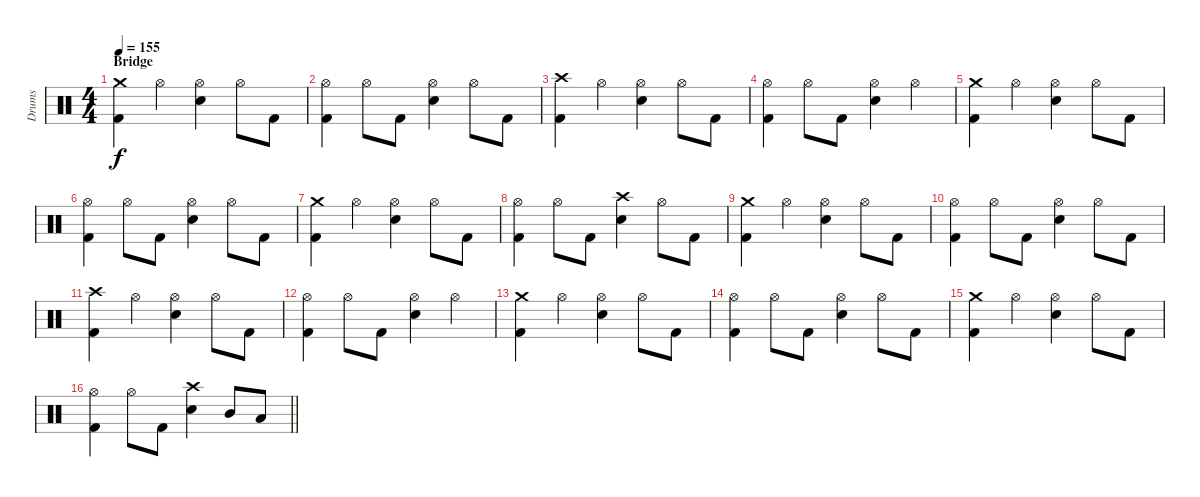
\track ("Drums" "Drums") {instrument percussion}
\staff {score}
\articulation defaults
\ts (4 4)
\section ("" "Bridge")
\tempo 155
\clef neutral
\ks c
("Crash medium (hit)" "Kick (hit) 2").4{dy f} "Hi-Hat (open)".4 ("Hi-Hat (open)" "Electric Snare (hit)").4 "Hi-Hat (open)".8 "Kick (hit) 2".8 |
("Hi-Hat (open)" "Kick (hit) 2").4 "Hi-Hat (open)".8 "Kick (hit) 2".8 ("Hi-Hat (open)" "Electric Snare (hit)").4 "Hi-Hat (open)".8 "Kick (hit) 2".8 |
("Crash high (hit)" "Kick (hit) 2").4 "Hi-Hat (open)".4 ("Hi-Hat (open)" "Electric Snare (hit)").4 "Hi-Hat (open)".8 "Kick (hit) 2".8 |
("Hi-Hat (open)" "Kick (hit) 2").4 "Hi-Hat (open)".8 "Kick (hit) 2".8 ("Hi-Hat (open)" "Electric Snare (hit)").4 "Hi-Hat (open)".4 |
("Crash medium (hit)" "Kick (hit) 2").4 "Hi-Hat (open)".4 ("Hi-Hat (open)" "Electric Snare (hit)").4 "Hi-Hat (open)".8 "Kick (hit) 2".8 |
("Hi-Hat (open)" "Kick (hit) 2").4 "Hi-Hat (open)".8 "Kick (hit) 2".8 ("Hi-Hat (open)" "Electric Snare (hit)").4 "Hi-Hat (open)".8 "Kick (hit) 2".8 |
("Crash medium (hit)" "Kick (hit) 2").4 "Hi-Hat (open)".4 ("Hi-Hat (open)" "Electric Snare (hit)").4 "Hi-Hat (open)".8 "Kick (hit) 2".8 |
("Hi-Hat (open)" "Kick (hit) 2").4 "Hi-Hat (open)".8 "Kick (hit) 2".8 ("Crash high (hit)" "Electric Snare (hit)").4 "Hi-Hat (open)".8 "Kick (hit) 2".8 |
("Crash medium (hit)" "Kick (hit) 2").4 "Hi-Hat (open)".4 ("Hi-Hat (open)" "Electric Snare (hit)").4 "Hi-Hat (open)".8 "Kick (hit) 2".8 |
("Hi-Hat (open)" "Kick (hit) 2").4 "Hi-Hat (open)".8 "Kick (hit) 2".8 ("Hi-Hat (open)" "Electric Snare (hit)").4 "Hi-Hat (open)".8 "Kick (hit) 2".8 |
("Crash high (hit)" "Kick (hit) 2").4 "Hi-Hat (open)".4 ("Hi-Hat (open)" "Electric Snare (hit)").4 "Hi-Hat (open)".8 "Kick (hit) 2".8 |
("Hi-Hat (open)" "Kick (hit) 2").4 "Hi-Hat (open)".8 "Kick (hit) 2".8 ("Hi-Hat (open)" "Electric Snare (hit)").4 "Hi-Hat (open)".4 |
("Crash medium (hit)" "Kick (hit) 2").4 "Hi-Hat (open)".4 ("Hi-Hat (open)" "Electric Snare (hit)").4 "Hi-Hat (open)".8 "Kick (hit) 2".8 |
("Hi-Hat (open)" "Kick (hit) 2").4 "Hi-Hat (open)".8 "Kick (hit) 2".8 ("Hi-Hat (open)" "Electric Snare (hit)").4 "Hi-Hat (open)".8 "Kick (hit) 2".8 |
("Crash medium (hit)" "Kick (hit) 2").4 "Hi-Hat (open)".4 ("Hi-Hat (open)" "Electric Snare (hit)").4 "Hi-Hat (open)".8 "Kick (hit) 2".8 |
\barLineRight lightlight
("Hi-Hat (open)" "Kick (hit) 2").4 "Hi-Hat (open)".8 "Kick (hit) 2".8 ("Crash high (hit)" "Electric Snare (hit)").4 "Mid Tom (hit)".8 "Low Tom (hit)".8
